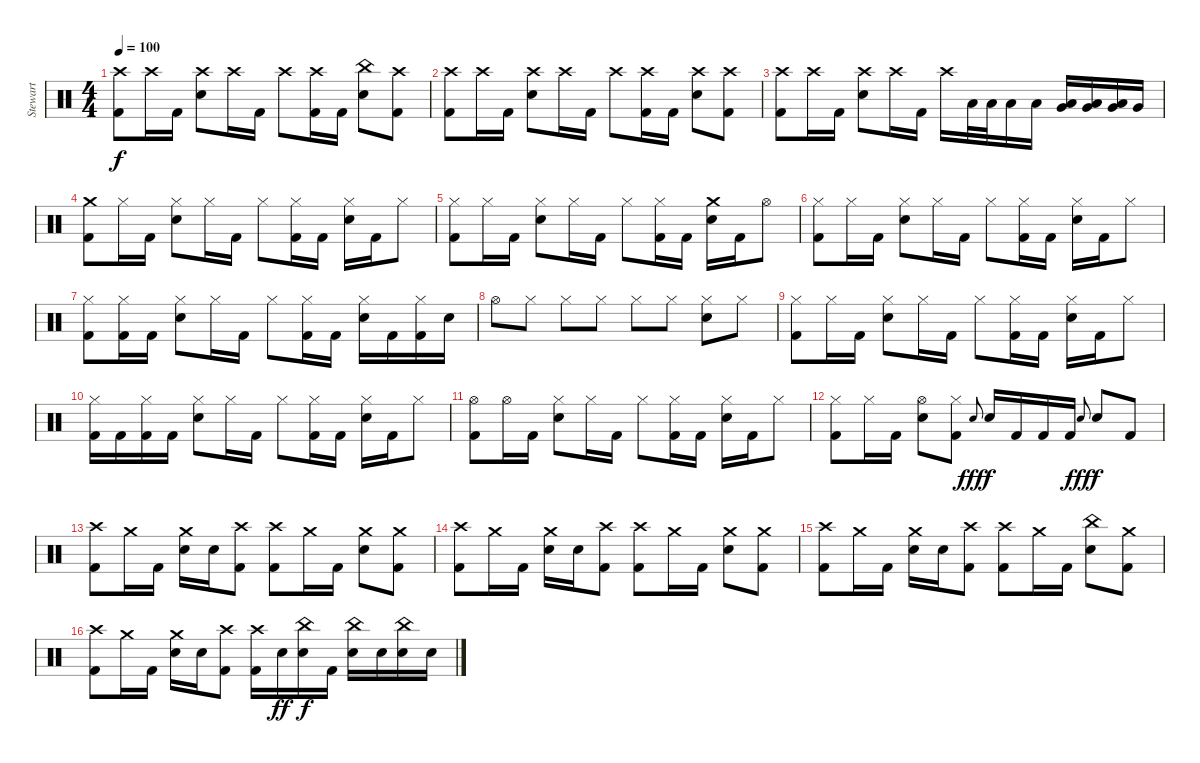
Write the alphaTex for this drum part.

\track ("Stewart" "Stewart") {instrument percussion}
\staff {score}
\articulation defaults
\ts (4 4)
\tempo 100
\clef neutral
\ks c
("Crash high (hit)" "Kick (hit) 2").8{dy f} "Crash high (hit)".16 "Kick (hit) 2".16 ("Crash high (hit)" "Electric Snare (hit)").8 "Crash high (hit)".16 "Kick (hit) 2".16 "Crash high (hit)".8 ("Crash high (hit)" "Kick (hit) 2").16 "Kick (hit) 2".16 ("China (hit)" "Electric Snare (hit)").8 ("Crash high (hit)" "Kick (hit) 2").8 |
("Crash high (hit)" "Kick (hit) 2").8 "Crash high (hit)".16 "Kick (hit) 2".16 ("Crash high (hit)" "Electric Snare (hit)").8 "Crash high (hit)".16 "Kick (hit) 2".16 "Crash high (hit)".8 ("Crash high (hit)" "Kick (hit) 2").16 "Kick (hit) 2".16 ("Crash high (hit)" "Electric Snare (hit)").8 ("Crash high (hit)" "Kick (hit) 2").8 |
("Crash high (hit)" "Kick (hit) 2").8 "Crash high (hit)".16 "Kick (hit) 2".16 ("Crash high (hit)" "Electric Snare (hit)").8 "Crash high (hit)".16 "Kick (hit) 2".16 "Crash high (hit)".16 "Low Tom (hit)".32 "Low Tom (hit)".32 "Low Tom (hit)".16 "Low Tom (hit)".16 ("Low Tom (hit)" "Very Low Tom (hit)").16 ("Low Tom (hit)" "Very Low Tom (hit)").16 ("Low Tom (hit)" "Very Low Tom (hit)").16 "Very Low Tom (hit)".16 |
("Crash medium (hit)" "Kick (hit) 2").8 "Hi-Hat (closed)".16 "Kick (hit) 2".16 ("Hi-Hat (closed)" "Electric Snare (hit)").8 "Hi-Hat (closed)".16 "Kick (hit) 2".16 "Hi-Hat (closed)".8 ("Hi-Hat (closed)" "Kick (hit) 2").16 "Kick (hit) 2".16 ("Hi-Hat (closed)" "Electric Snare (hit)").16 "Kick (hit) 2".16 "Hi-Hat (closed)".8 |
("Hi-Hat (closed)" "Kick (hit) 2").8 "Hi-Hat (closed)".16 "Kick (hit) 2".16 ("Hi-Hat (closed)" "Electric Snare (hit)").8 "Hi-Hat (closed)".16 "Kick (hit) 2".16 "Hi-Hat (closed)".8 ("Hi-Hat (closed)" "Kick (hit) 2").16 "Kick (hit) 2".16 ("Crash medium (hit)" "Electric Snare (hit)").16 "Kick (hit) 2".16 "Hi-Hat (open)".8 |
("Hi-Hat (closed)" "Kick (hit) 2").8 "Hi-Hat (closed)".16 "Kick (hit) 2".16 ("Hi-Hat (closed)" "Electric Snare (hit)").8 "Hi-Hat (closed)".16 "Kick (hit) 2".16 "Hi-Hat (closed)".8 ("Hi-Hat (closed)" "Kick (hit) 2").16 "Kick (hit) 2".16 ("Hi-Hat (closed)" "Electric Snare (hit)").16 "Kick (hit) 2".16 "Hi-Hat (closed)".8 |
("Hi-Hat (closed)" "Kick (hit) 2").8 ("Hi-Hat (closed)" "Kick (hit) 2").16 "Kick (hit) 2".16 ("Hi-Hat (closed)" "Electric Snare (hit)").8 "Hi-Hat (closed)".16 "Kick (hit) 2".16 "Hi-Hat (closed)".8 ("Hi-Hat (closed)" "Kick (hit) 2").16 "Kick (hit) 2".16 ("Hi-Hat (closed)" "Electric Snare (hit)").16 "Kick (hit) 2".16 ("Hi-Hat (closed)" "Kick (hit) 2").16 "Electric Snare (hit)".16 |
"Hi-Hat (open)".8 "Hi-Hat (closed)".8 "Hi-Hat (closed)".8 "Hi-Hat (closed)".8 "Hi-Hat (closed)".8 "Hi-Hat (closed)".8 ("Hi-Hat (closed)" "Electric Snare (hit)").8 "Hi-Hat (closed)".8 |
("Hi-Hat (closed)" "Kick (hit) 2").8 "Hi-Hat (closed)".16 "Kick (hit) 2".16 ("Hi-Hat (closed)" "Electric Snare (hit)").8 "Hi-Hat (closed)".16 "Kick (hit) 2".16 "Hi-Hat (closed)".8 ("Hi-Hat (closed)" "Kick (hit) 2").16 "Kick (hit) 2".16 ("Hi-Hat (closed)" "Electric Snare (hit)").16 "Kick (hit) 2".16 "Hi-Hat (closed)".8 |
("Hi-Hat (closed)" "Kick (hit) 2").16 "Kick (hit) 2".16 ("Hi-Hat (closed)" "Kick (hit) 2").16 "Kick (hit) 2".16 ("Hi-Hat (closed)" "Electric Snare (hit)").8 "Hi-Hat (closed)".16 "Kick (hit) 2".16 "Hi-Hat (closed)".8 ("Hi-Hat (closed)" "Kick (hit) 2").16 "Kick (hit) 2".16 ("Hi-Hat (closed)" "Electric Snare (hit)").16 "Kick (hit) 2".16 "Hi-Hat (closed)".8 |
("Hi-Hat (open)" "Kick (hit) 2").8 "Hi-Hat (open)".16 "Kick (hit) 2".16 ("Hi-Hat (closed)" "Electric Snare (hit)").8 "Hi-Hat (closed)".16 "Kick (hit) 2".16 "Hi-Hat (closed)".8 ("Hi-Hat (closed)" "Kick (hit) 2").16 "Kick (hit) 2".16 ("Hi-Hat (closed)" "Electric Snare (hit)").16 "Kick (hit) 2".16 "Hi-Hat (closed)".8 |
("Hi-Hat (closed)" "Kick (hit) 2").8 "Hi-Hat (closed)".16 "Kick (hit) 2".16 ("Hi-Hat (open)" "Electric Snare (hit)").8 ("Hi-Hat (closed)" "Kick (hit) 2").8 "Electric Snare (hit)".8{gr onbeat dy fff} "Electric Snare (hit)".16{dy f} "Kick (hit) 2".16 "Kick (hit) 2".16 "Kick (hit) 2".16 "Electric Snare (hit)".8{gr onbeat dy fff} "Electric Snare (hit)".8{dy f} "Kick (hit) 2".8 |
("Crash high (hit)" "Kick (hit) 2").8 "Crash medium (hit)".16 "Kick (hit) 2".16 ("Crash medium (hit)" "Electric Snare (hit)").16 "Electric Snare (hit)".16 ("Crash high (hit)" "Kick (hit) 2").8 ("Crash high (hit)" "Kick (hit) 2").8 "Crash medium (hit)".16 "Kick (hit) 2".16 ("Crash medium (hit)" "Electric Snare (hit)").8 ("Crash medium (hit)" "Kick (hit) 2").8 |
("Crash high (hit)" "Kick (hit) 2").8 "Crash medium (hit)".16 "Kick (hit) 2".16 ("Crash medium (hit)" "Electric Snare (hit)").16 "Electric Snare (hit)".16 ("Crash high (hit)" "Kick (hit) 2").8 ("Crash high (hit)" "Kick (hit) 2").8 "Crash medium (hit)".16 "Kick (hit) 2".16 ("Crash medium (hit)" "Electric Snare (hit)").8 ("Crash medium (hit)" "Kick (hit) 2").8 |
("Crash high (hit)" "Kick (hit) 2").8 "Crash medium (hit)".16 "Kick (hit) 2".16 ("Crash medium (hit)" "Electric Snare (hit)").16 "Electric Snare (hit)".16 ("Crash high (hit)" "Kick (hit) 2").8 ("Crash high (hit)" "Kick (hit) 2").8 "Crash medium (hit)".16 "Kick (hit) 2".16 ("China (hit)" "Electric Snare (hit)").8 ("Crash medium (hit)" "Kick (hit) 2").8 |
("Crash high (hit)" "Kick (hit) 2").8 "Crash medium (hit)".16 "Kick (hit) 2".16 ("Crash medium (hit)" "Electric Snare (hit)").16 "Electric Snare (hit)".16 ("Crash high (hit)" "Kick (hit) 2").8 ("Crash high (hit)" "Kick (hit) 2").16 "Electric Snare (hit)".16{dy ff} ("China (hit)" "Electric Snare (hit)").16{dy f} "Kick (hit) 2".16 ("China (hit)" "Electric Snare (hit)").16 "Electric Snare (hit)".16 ("China (hit)" "Electric Snare (hit)").16 "Electric Snare (hit)".16
